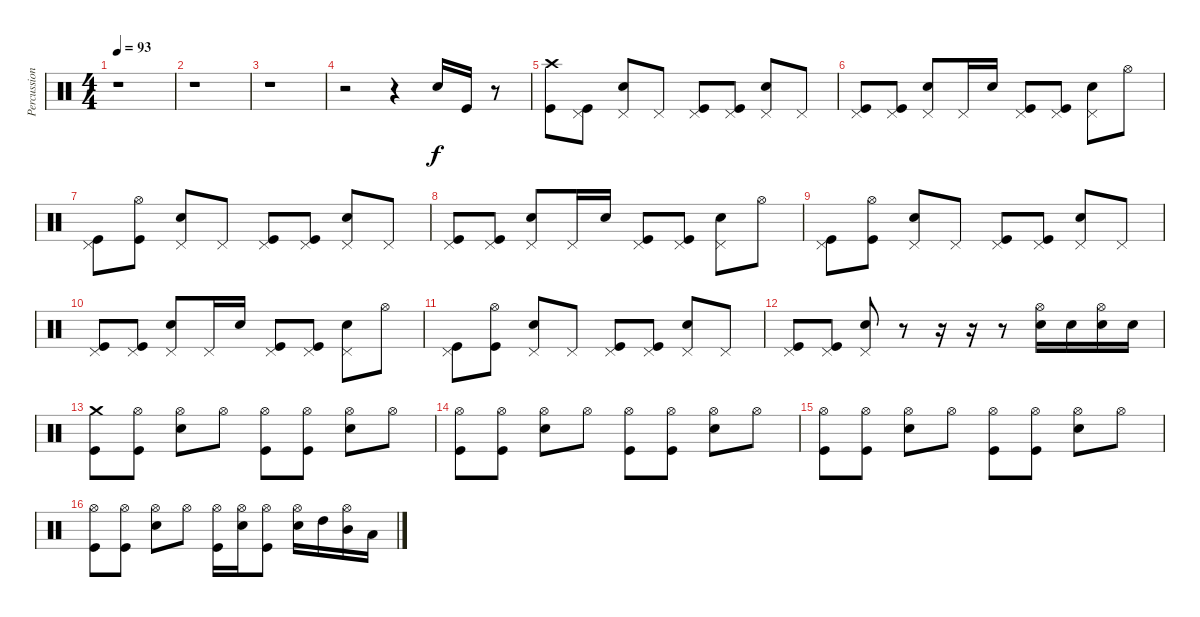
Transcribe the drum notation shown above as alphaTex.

\track ("Percussions" "Percussion") {instrument percussion}
\staff {score}
\articulation defaults
\ts (4 4)
\tempo 93
\clef neutral
\ks c
r.1{dy f} |
r.1 |
r.1 |
r.2 r.4 "Snare (hit) 2".16 "Kick (hit)".16 r.8 |
("Crash high (hit)" "Kick (hit)").8 ("Pedal Hi-Hat (hit)" "Kick (hit)").8 ("Pedal Hi-Hat (hit)" "Snare (hit) 2").8 "Pedal Hi-Hat (hit)".8 ("Pedal Hi-Hat (hit)" "Kick (hit)").8 ("Pedal Hi-Hat (hit)" "Kick (hit)").8 ("Pedal Hi-Hat (hit)" "Snare (hit) 2").8 "Pedal Hi-Hat (hit)".8 |
("Pedal Hi-Hat (hit)" "Kick (hit)").8 ("Pedal Hi-Hat (hit)" "Kick (hit)").8 ("Pedal Hi-Hat (hit)" "Snare (hit) 2").8 "Pedal Hi-Hat (hit)".16 "Snare (hit) 2".16 ("Pedal Hi-Hat (hit)" "Kick (hit)").8 ("Pedal Hi-Hat (hit)" "Kick (hit)").8 ("Pedal Hi-Hat (hit)" "Snare (hit) 2").8 "Hi-Hat (open)".8 |
("Pedal Hi-Hat (hit)" "Kick (hit)").8 ("Hi-Hat (open)" "Kick (hit)").8 ("Pedal Hi-Hat (hit)" "Snare (hit) 2").8 "Pedal Hi-Hat (hit)".8 ("Pedal Hi-Hat (hit)" "Kick (hit)").8 ("Pedal Hi-Hat (hit)" "Kick (hit)").8 ("Pedal Hi-Hat (hit)" "Snare (hit) 2").8 "Pedal Hi-Hat (hit)".8 |
("Pedal Hi-Hat (hit)" "Kick (hit)").8 ("Pedal Hi-Hat (hit)" "Kick (hit)").8 ("Pedal Hi-Hat (hit)" "Snare (hit) 2").8 "Pedal Hi-Hat (hit)".16 "Snare (hit) 2".16 ("Pedal Hi-Hat (hit)" "Kick (hit)").8 ("Pedal Hi-Hat (hit)" "Kick (hit)").8 ("Pedal Hi-Hat (hit)" "Snare (hit) 2").8 "Hi-Hat (open)".8 |
("Pedal Hi-Hat (hit)" "Kick (hit)").8 ("Hi-Hat (open)" "Kick (hit)").8 ("Pedal Hi-Hat (hit)" "Snare (hit) 2").8 "Pedal Hi-Hat (hit)".8 ("Pedal Hi-Hat (hit)" "Kick (hit)").8 ("Pedal Hi-Hat (hit)" "Kick (hit)").8 ("Pedal Hi-Hat (hit)" "Snare (hit) 2").8 "Pedal Hi-Hat (hit)".8 |
("Pedal Hi-Hat (hit)" "Kick (hit)").8 ("Pedal Hi-Hat (hit)" "Kick (hit)").8 ("Pedal Hi-Hat (hit)" "Snare (hit) 2").8 "Pedal Hi-Hat (hit)".16 "Snare (hit) 2".16 ("Pedal Hi-Hat (hit)" "Kick (hit)").8 ("Pedal Hi-Hat (hit)" "Kick (hit)").8 ("Pedal Hi-Hat (hit)" "Snare (hit) 2").8 "Hi-Hat (open)".8 |
("Pedal Hi-Hat (hit)" "Kick (hit)").8 ("Hi-Hat (open)" "Kick (hit)").8 ("Pedal Hi-Hat (hit)" "Snare (hit) 2").8 "Pedal Hi-Hat (hit)".8 ("Pedal Hi-Hat (hit)" "Kick (hit)").8 ("Pedal Hi-Hat (hit)" "Kick (hit)").8 ("Pedal Hi-Hat (hit)" "Snare (hit) 2").8 "Pedal Hi-Hat (hit)".8 |
("Pedal Hi-Hat (hit)" "Kick (hit)").8 ("Pedal Hi-Hat (hit)" "Kick (hit)").8 ("Pedal Hi-Hat (hit)" "Snare (hit) 2").8 r.8 r.16 r.16 r.8 ("Hi-Hat (open)" "Snare (hit) 2").16 "Snare (hit) 2".16 ("Hi-Hat (open)" "Snare (hit) 2").16 "Snare (hit) 2".16 |
("Crash medium (hit)" "Kick (hit)").8 ("Hi-Hat (open)" "Kick (hit)").8 ("Hi-Hat (open)" "Snare (hit) 2").8 "Hi-Hat (open)".8 ("Hi-Hat (open)" "Kick (hit)").8 ("Hi-Hat (open)" "Kick (hit)").8 ("Hi-Hat (open)" "Snare (hit) 2").8 "Hi-Hat (open)".8 |
("Hi-Hat (open)" "Kick (hit)").8 ("Hi-Hat (open)" "Kick (hit)").8 ("Hi-Hat (open)" "Snare (hit) 2").8 "Hi-Hat (open)".8 ("Hi-Hat (open)" "Kick (hit)").8 ("Hi-Hat (open)" "Kick (hit)").8 ("Hi-Hat (open)" "Snare (hit) 2").8 "Hi-Hat (open)".8 |
("Hi-Hat (open)" "Kick (hit)").8 ("Hi-Hat (open)" "Kick (hit)").8 ("Hi-Hat (open)" "Snare (hit) 2").8 "Hi-Hat (open)".8 ("Hi-Hat (open)" "Kick (hit)").8 ("Hi-Hat (open)" "Kick (hit)").8 ("Hi-Hat (open)" "Snare (hit) 2").8 "Hi-Hat (open)".8 |
("Hi-Hat (open)" "Kick (hit)").8 ("Hi-Hat (open)" "Kick (hit)").8 ("Hi-Hat (open)" "Snare (hit) 2").8 "Hi-Hat (open)".8 ("Hi-Hat (open)" "Kick (hit)").16 ("Hi-Hat (open)" "Snare (hit) 2").16 ("Hi-Hat (open)" "Kick (hit)").8 ("Hi-Hat (open)" "Snare (hit) 2").16 "High Tom (hit)".16 ("Hi-Hat (open)" "Mid Tom (hit)").16 "Low Tom (hit)".16
